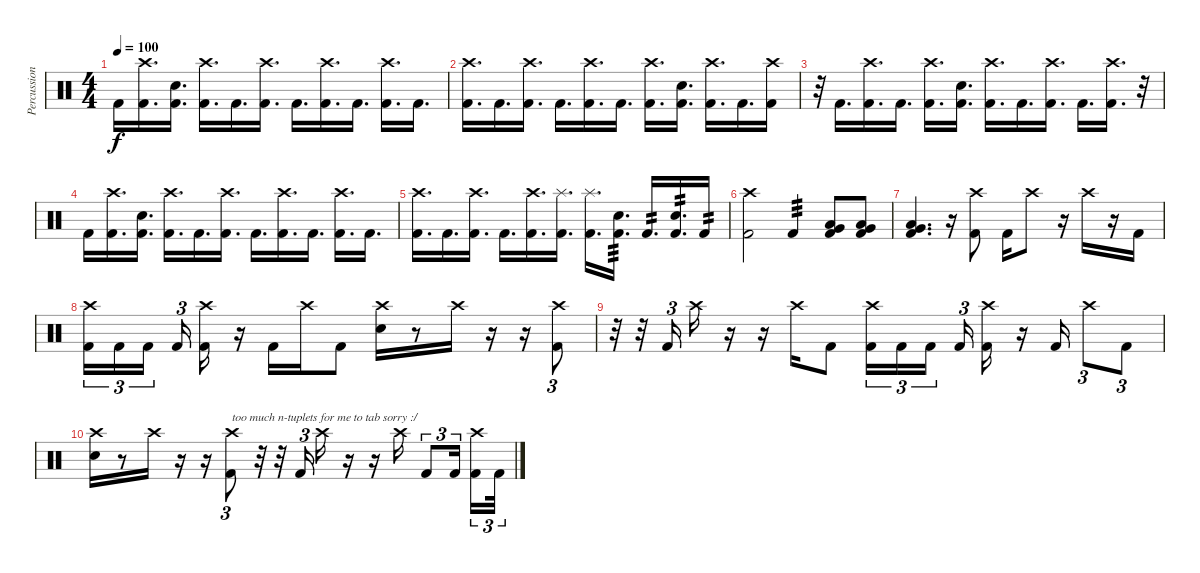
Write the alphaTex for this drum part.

\track ("Percussion" "Percussion") {instrument percussion}
\staff {score}
\articulation defaults
\ts (4 4)
\tempo 100
\clef neutral
\ks c "Kick (hit) 2".16{dy f}
("Crash high (hit)" "Kick (hit) 2").16{d} ("Snare (hit) 2" "Kick (hit) 2").16{d} ("Crash high (hit)" "Kick (hit) 2").16{d} "Kick (hit) 2".16{d} ("Crash high (hit)" "Kick (hit) 2").16{d} "Kick (hit) 2".16{d} ("Crash high (hit)" "Kick (hit) 2").16{d} "Kick (hit) 2".16{d} ("Crash high (hit)" "Kick (hit) 2").16{d} "Kick (hit) 2".16{d} |
("Crash high (hit)" "Kick (hit) 2").16{d} "Kick (hit) 2".16{d} ("Crash high (hit)" "Kick (hit) 2").16{d} "Kick (hit) 2".16{d} ("Crash high (hit)" "Kick (hit) 2").16{d} "Kick (hit) 2".16{d} ("Crash high (hit)" "Kick (hit) 2").16{d} ("Snare (hit) 2" "Kick (hit) 2").16{d} ("Crash high (hit)" "Kick (hit) 2").16{d} "Kick (hit) 2".16{d} ("Crash high (hit)" "Kick (hit) 2").16 |
r.32 "Kick (hit) 2".16{d} ("Crash high (hit)" "Kick (hit) 2").16{d} "Kick (hit) 2".16{d} ("Crash high (hit)" "Kick (hit) 2").16{d} ("Snare (hit) 2" "Kick (hit) 2").16{d} ("Crash high (hit)" "Kick (hit) 2").16{d} "Kick (hit) 2".16{d} ("Crash high (hit)" "Kick (hit) 2").16{d} "Kick (hit) 2".16{d} ("Crash high (hit)" "Kick (hit) 2").16{d} r.32 |
"Kick (hit) 2".16 ("Crash high (hit)" "Kick (hit) 2").16{d} ("Snare (hit) 2" "Kick (hit) 2").16{d} ("Crash high (hit)" "Kick (hit) 2").16{d} "Kick (hit) 2".16{d} ("Crash high (hit)" "Kick (hit) 2").16{d} "Kick (hit) 2".16{d} ("Crash high (hit)" "Kick (hit) 2").16{d} "Kick (hit) 2".16{d} ("Crash high (hit)" "Kick (hit) 2").16{d} "Kick (hit) 2".16{d} |
("Crash high (hit)" "Kick (hit) 2").16{d} "Kick (hit) 2".16{d} ("Crash high (hit)" "Kick (hit) 2").16{d} "Kick (hit) 2".16{d} ("Crash high (hit)" "Kick (hit) 2").16{d} ("Splash (hit)" "Kick (hit) 2").16{d} ("Splash (hit)" "Kick (hit) 2").16{d} ("Snare (hit) 2" "Kick (hit) 2").16{d tp 3} "Kick (hit) 2".16{d tp 2} ("Snare (hit) 2" "Kick (hit) 2").16{d tp 2} "Kick (hit) 2".16{tp 2} |
("Crash high (hit)" "Kick (hit) 2").2 "Kick (hit) 2".4{tp 3} ("Low Tom (hit)" "Very Low Tom (hit)" "Kick (hit) 2").8 ("Low Tom (hit)" "Very Low Tom (hit)" "Kick (hit) 2").8 |
("Low Tom (hit)" "Very Low Tom (hit)" "Kick (hit) 2").4{d} r.16 ("Crash high (hit)" "Kick (hit) 2").8 "Kick (hit) 2".16 "Crash high (hit)".8 r.16 "Crash high (hit)".16 r.16 "Kick (hit) 2".16 |
("Crash high (hit)" "Kick (hit) 2").16{tu (3 2)} "Kick (hit) 2".16{tu (3 2)} "Kick (hit) 2".16{tu (3 2) beam splitsecondary} "Kick (hit) 2".16{tu (3 2)} ("Crash high (hit)" "Kick (hit) 2").16 r.16 "Kick (hit) 2".16 "Crash high (hit)".16 "Kick (hit) 2".8 ("Crash high (hit)" "Snare (hit) 2").16 r.8 "Crash high (hit)".16 r.16 r.16 ("Crash high (hit)" "Kick (hit) 2").8{tu (3 2)} |
r.32 r.32 "Kick (hit) 2".16{tu (3 2)} "Crash high (hit)".16 r.16 r.16 "Crash high (hit)".16 "Kick (hit) 2".8 ("Crash high (hit)" "Kick (hit) 2").16{tu (3 2)} "Kick (hit) 2".16{tu (3 2)} "Kick (hit) 2".16{tu (3 2) beam splitsecondary} "Kick (hit) 2".16{tu (3 2)} ("Crash high (hit)" "Kick (hit) 2").16 r.16 "Kick (hit) 2".16 "Crash high (hit)".8{tu (3 2)} "Kick (hit) 2".8{tu (3 2)} |
("Crash high (hit)" "Snare (hit) 2").16 r.8 "Crash high (hit)".16 r.16 r.16 ("Crash high (hit)" "Kick (hit) 2").8{tu (3 2) txt "too much n-tuplets for me to tab sorry :/"} r.32 r.32 "Kick (hit) 2".16{tu (3 2)} "Crash high (hit)".16 r.16 r.16 "Crash high (hit)".16 "Kick (hit) 2".8{tu (3 2)} "Kick (hit) 2".16{tu (3 2) beam splitsecondary} ("Crash high (hit)" "Kick (hit) 2").16{tu (3 2)} "Kick (hit) 2".32{tu (3 2)}
